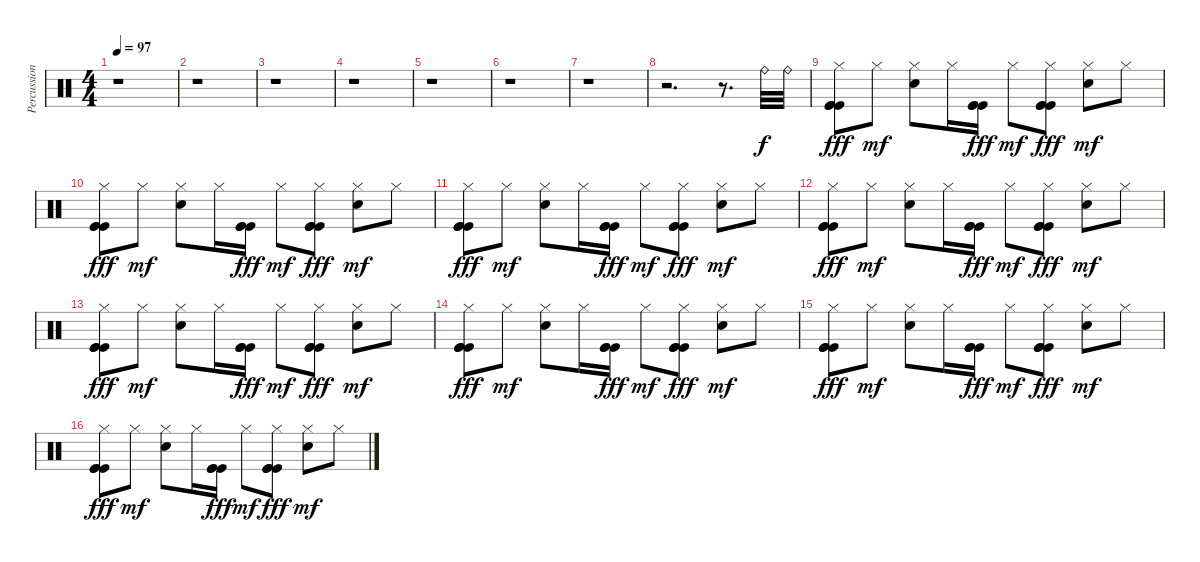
\track ("Percussions" "Percussion") {instrument percussion}
\staff {score}
\articulation defaults
\ts (4 4)
\tempo 97
\clef neutral
\ks c
r.1{dy f} |
r.1 |
r.1 |
r.1 |
r.1 |
r.1 |
r.1 |
r.2{d} r.8{d} "Ride (bell)".32 "Ride (bell)".32 |
("Hi-Hat (closed)" "Kick (hit)" "Kick (hit)" "Kick (hit)").8{dy fff} "Hi-Hat (closed)".8{dy mf} ("Hi-Hat (closed)" "Electric Snare (hit)").8 "Hi-Hat (closed)".16 ("Kick (hit)" "Kick (hit)" "Kick (hit)").16{dy fff} "Hi-Hat (closed)".8{dy mf} ("Hi-Hat (closed)" "Kick (hit)" "Kick (hit)" "Kick (hit)").8{dy fff} ("Hi-Hat (closed)" "Electric Snare (hit)").8{dy mf} "Hi-Hat (closed)".8 |
("Hi-Hat (closed)" "Kick (hit)" "Kick (hit)" "Kick (hit)").8{dy fff} "Hi-Hat (closed)".8{dy mf} ("Hi-Hat (closed)" "Electric Snare (hit)").8 "Hi-Hat (closed)".16 ("Kick (hit)" "Kick (hit)" "Kick (hit)").16{dy fff} "Hi-Hat (closed)".8{dy mf} ("Hi-Hat (closed)" "Kick (hit)" "Kick (hit)" "Kick (hit)").8{dy fff} ("Hi-Hat (closed)" "Electric Snare (hit)").8{dy mf} "Hi-Hat (closed)".8 |
("Hi-Hat (closed)" "Kick (hit)" "Kick (hit)" "Kick (hit)").8{dy fff} "Hi-Hat (closed)".8{dy mf} ("Hi-Hat (closed)" "Electric Snare (hit)").8 "Hi-Hat (closed)".16 ("Kick (hit)" "Kick (hit)" "Kick (hit)").16{dy fff} "Hi-Hat (closed)".8{dy mf} ("Hi-Hat (closed)" "Kick (hit)" "Kick (hit)" "Kick (hit)").8{dy fff} ("Hi-Hat (closed)" "Electric Snare (hit)").8{dy mf} "Hi-Hat (closed)".8 |
("Hi-Hat (closed)" "Kick (hit)" "Kick (hit)" "Kick (hit)").8{dy fff} "Hi-Hat (closed)".8{dy mf} ("Hi-Hat (closed)" "Electric Snare (hit)").8 "Hi-Hat (closed)".16 ("Kick (hit)" "Kick (hit)" "Kick (hit)").16{dy fff} "Hi-Hat (closed)".8{dy mf} ("Hi-Hat (closed)" "Kick (hit)" "Kick (hit)" "Kick (hit)").8{dy fff} ("Hi-Hat (closed)" "Electric Snare (hit)").8{dy mf} "Hi-Hat (closed)".8 |
("Hi-Hat (closed)" "Kick (hit)" "Kick (hit)" "Kick (hit)").8{dy fff} "Hi-Hat (closed)".8{dy mf} ("Hi-Hat (closed)" "Electric Snare (hit)").8 "Hi-Hat (closed)".16 ("Kick (hit)" "Kick (hit)" "Kick (hit)").16{dy fff} "Hi-Hat (closed)".8{dy mf} ("Hi-Hat (closed)" "Kick (hit)" "Kick (hit)" "Kick (hit)").8{dy fff} ("Hi-Hat (closed)" "Electric Snare (hit)").8{dy mf} "Hi-Hat (closed)".8 |
("Hi-Hat (closed)" "Kick (hit)" "Kick (hit)" "Kick (hit)").8{dy fff} "Hi-Hat (closed)".8{dy mf} ("Hi-Hat (closed)" "Electric Snare (hit)").8 "Hi-Hat (closed)".16 ("Kick (hit)" "Kick (hit)" "Kick (hit)").16{dy fff} "Hi-Hat (closed)".8{dy mf} ("Hi-Hat (closed)" "Kick (hit)" "Kick (hit)" "Kick (hit)").8{dy fff} ("Hi-Hat (closed)" "Electric Snare (hit)").8{dy mf} "Hi-Hat (closed)".8 |
("Hi-Hat (closed)" "Kick (hit)" "Kick (hit)" "Kick (hit)").8{dy fff} "Hi-Hat (closed)".8{dy mf} ("Hi-Hat (closed)" "Electric Snare (hit)").8 "Hi-Hat (closed)".16 ("Kick (hit)" "Kick (hit)" "Kick (hit)").16{dy fff} "Hi-Hat (closed)".8{dy mf} ("Hi-Hat (closed)" "Kick (hit)" "Kick (hit)" "Kick (hit)").8{dy fff} ("Hi-Hat (closed)" "Electric Snare (hit)").8{dy mf} "Hi-Hat (closed)".8 |
("Hi-Hat (closed)" "Kick (hit)" "Kick (hit)" "Kick (hit)").8{dy fff} "Hi-Hat (closed)".8{dy mf} ("Hi-Hat (closed)" "Electric Snare (hit)").8 "Hi-Hat (closed)".16 ("Kick (hit)" "Kick (hit)" "Kick (hit)").16{dy fff} "Hi-Hat (closed)".8{dy mf} ("Hi-Hat (closed)" "Kick (hit)" "Kick (hit)" "Kick (hit)").8{dy fff} ("Hi-Hat (closed)" "Electric Snare (hit)").8{dy mf} "Hi-Hat (closed)".8
